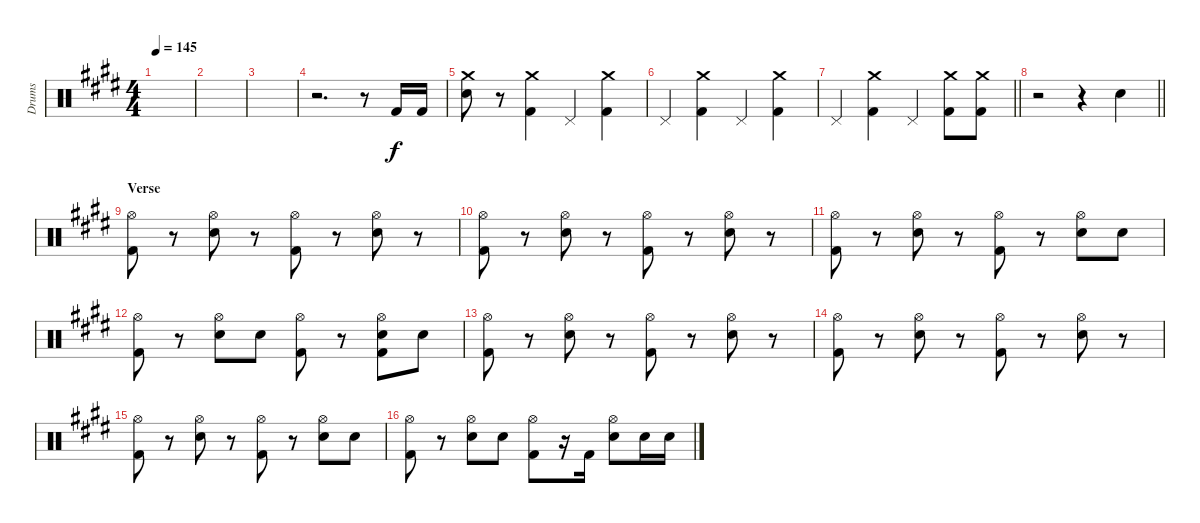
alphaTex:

\track ("Drums" "Drums") {instrument percussion}
\staff {score}
\articulation defaults
\ts (4 4)
\tempo 145
\clef neutral
\ks e
|
|
|
r.2{d} r.8 "Kick (hit) 2".16 "Kick (hit) 2".16 |
("Crash medium (hit)" "Electric Snare (hit)").8 r.8 ("Crash medium (hit)" "Kick (hit) 2").4 "Pedal Hi-Hat (hit)".4 ("Crash medium (hit)" "Kick (hit) 2").4 |
"Pedal Hi-Hat (hit)".4 ("Crash medium (hit)" "Kick (hit) 2").4 "Pedal Hi-Hat (hit)".4 ("Crash medium (hit)" "Kick (hit) 2").4 |
\barLineRight lightlight "Pedal Hi-Hat (hit)".4
("Crash medium (hit)" "Kick (hit) 2").4 "Pedal Hi-Hat (hit)".4 ("Crash medium (hit)" "Kick (hit) 2").8 ("Crash medium (hit)" "Kick (hit) 2").8 |
\barLineRight lightlight
r.2 r.4 "Electric Snare (hit)".4 |
\section ("" "Verse")
("Hi-Hat (open)" "Kick (hit) 2").8 r.8 ("Hi-Hat (open)" "Electric Snare (hit)").8 r.8 ("Hi-Hat (open)" "Kick (hit) 2").8 r.8 ("Hi-Hat (open)" "Electric Snare (hit)").8 r.8 |
("Hi-Hat (open)" "Kick (hit) 2").8 r.8 ("Hi-Hat (open)" "Electric Snare (hit)").8 r.8 ("Hi-Hat (open)" "Kick (hit) 2").8 r.8 ("Hi-Hat (open)" "Electric Snare (hit)").8 r.8 |
("Hi-Hat (open)" "Kick (hit) 2").8 r.8 ("Hi-Hat (open)" "Electric Snare (hit)").8 r.8 ("Hi-Hat (open)" "Kick (hit) 2").8 r.8 ("Hi-Hat (open)" "Electric Snare (hit)").8 "Electric Snare (hit)".8 |
("Hi-Hat (open)" "Kick (hit) 2").8 r.8 ("Hi-Hat (open)" "Electric Snare (hit)").8 "Electric Snare (hit)".8 ("Hi-Hat (open)" "Kick (hit) 2").8 r.8 ("Hi-Hat (open)" "Electric Snare (hit)" "Kick (hit) 2").8 "Electric Snare (hit)".8 |
("Hi-Hat (open)" "Kick (hit) 2").8 r.8 ("Hi-Hat (open)" "Electric Snare (hit)").8 r.8 ("Hi-Hat (open)" "Kick (hit) 2").8 r.8 ("Hi-Hat (open)" "Electric Snare (hit)").8 r.8 |
("Hi-Hat (open)" "Kick (hit) 2").8 r.8 ("Hi-Hat (open)" "Electric Snare (hit)").8 r.8 ("Hi-Hat (open)" "Kick (hit) 2").8 r.8 ("Hi-Hat (open)" "Electric Snare (hit)").8 r.8 |
("Hi-Hat (open)" "Kick (hit) 2").8 r.8 ("Hi-Hat (open)" "Electric Snare (hit)").8 r.8 ("Hi-Hat (open)" "Kick (hit) 2").8 r.8 ("Hi-Hat (open)" "Electric Snare (hit)").8 "Electric Snare (hit)".8 |
("Hi-Hat (open)" "Kick (hit) 2").8 r.8 ("Hi-Hat (open)" "Electric Snare (hit)").8 "Electric Snare (hit)".8 ("Hi-Hat (open)" "Kick (hit) 2").8 r.16 "Kick (hit) 2".16 ("Hi-Hat (open)" "Electric Snare (hit)").8 "Electric Snare (hit)".16 "Electric Snare (hit)".16
